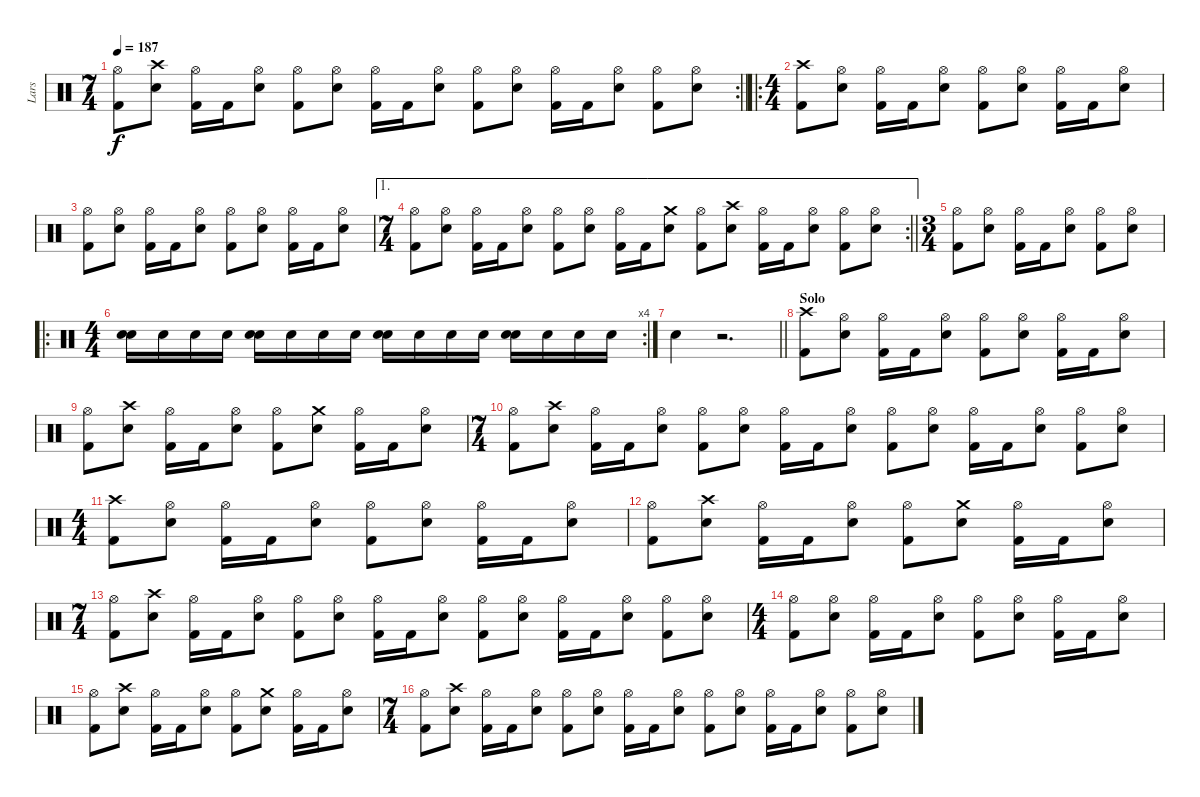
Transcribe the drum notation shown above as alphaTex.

\track ("Lars" "Lars") {instrument percussion}
\staff {score}
\articulation defaults
\rc 2
\ts (7 4)
\tempo 187
\clef neutral
\barLineRight lightlight
\ks c
("Hi-Hat (open)" "Kick (hit) 2").8{dy f} ("Crash high (hit)" "Snare (hit) 2").8 ("Hi-Hat (open)" "Kick (hit) 2").16 "Kick (hit) 2".16 ("Hi-Hat (open)" "Snare (hit) 2").8 ("Hi-Hat (open)" "Kick (hit) 2").8 ("Hi-Hat (open)" "Snare (hit) 2").8 ("Hi-Hat (open)" "Kick (hit) 2").16 "Kick (hit) 2".16 ("Hi-Hat (open)" "Snare (hit) 2").8 ("Hi-Hat (open)" "Kick (hit) 2").8 ("Hi-Hat (open)" "Snare (hit) 2").8 ("Hi-Hat (open)" "Kick (hit) 2").16 "Kick (hit) 2".16 ("Hi-Hat (open)" "Snare (hit) 2").8 ("Hi-Hat (open)" "Kick (hit) 2").8 ("Hi-Hat (open)" "Snare (hit) 2").8 |
\ro
\ts (4 4)
\section ("" "")
("Crash high (hit)" "Kick (hit) 2").8 ("Hi-Hat (open)" "Snare (hit) 2").8 ("Hi-Hat (open)" "Kick (hit) 2").16 "Kick (hit) 2".16 ("Hi-Hat (open)" "Snare (hit) 2").8 ("Hi-Hat (open)" "Kick (hit) 2").8 ("Hi-Hat (open)" "Snare (hit) 2").8 ("Hi-Hat (open)" "Kick (hit) 2").16 "Kick (hit) 2".16 ("Hi-Hat (open)" "Snare (hit) 2").8 |
("Hi-Hat (open)" "Kick (hit) 2").8 ("Hi-Hat (open)" "Snare (hit) 2").8 ("Hi-Hat (open)" "Kick (hit) 2").16 "Kick (hit) 2".16 ("Hi-Hat (open)" "Snare (hit) 2").8 ("Hi-Hat (open)" "Kick (hit) 2").8 ("Hi-Hat (open)" "Snare (hit) 2").8 ("Hi-Hat (open)" "Kick (hit) 2").16 "Kick (hit) 2".16 ("Hi-Hat (open)" "Snare (hit) 2").8 |
\ae 1
\rc 2
\ts (7 4)
\barLineRight lightlight
("Hi-Hat (open)" "Kick (hit) 2").8 ("Hi-Hat (open)" "Snare (hit) 2").8 ("Hi-Hat (open)" "Kick (hit) 2").16 "Kick (hit) 2".16 ("Hi-Hat (open)" "Snare (hit) 2").8 ("Hi-Hat (open)" "Kick (hit) 2").8 ("Hi-Hat (open)" "Snare (hit) 2").8 ("Hi-Hat (open)" "Kick (hit) 2").16 "Kick (hit) 2".16 ("Crash medium (hit)" "Snare (hit) 2").8 ("Hi-Hat (open)" "Kick (hit) 2").8 ("Crash high (hit)" "Snare (hit) 2").8 ("Hi-Hat (open)" "Kick (hit) 2").16 "Kick (hit) 2".16 ("Hi-Hat (open)" "Snare (hit) 2").8 ("Hi-Hat (open)" "Kick (hit) 2").8 ("Hi-Hat (open)" "Snare (hit) 2").8 |
\ts (3 4)
("Hi-Hat (open)" "Kick (hit) 2").8 ("Hi-Hat (open)" "Snare (hit) 2").8 ("Hi-Hat (open)" "Kick (hit) 2").16 "Kick (hit) 2".16 ("Hi-Hat (open)" "Snare (hit) 2").8 ("Hi-Hat (open)" "Kick (hit) 2").8 ("Hi-Hat (open)" "Snare (hit) 2").8 |
\ro
\rc 4
\ts (4 4)
("Electric Snare (hit)" "Snare (hit) 2").16 "Snare (hit) 2".16 "Snare (hit) 2".16 "Snare (hit) 2".16 ("Electric Snare (hit)" "Snare (hit) 2").16 "Snare (hit) 2".16 "Snare (hit) 2".16 "Snare (hit) 2".16 ("Electric Snare (hit)" "Snare (hit) 2").16 "Snare (hit) 2".16 "Snare (hit) 2".16 "Snare (hit) 2".16 ("Electric Snare (hit)" "Snare (hit) 2").16 "Snare (hit) 2".16 "Snare (hit) 2".16 "Snare (hit) 2".16 |
\barLineRight lightlight "Snare (hit) 2".4
r.2{d} |
\section ("" "Solo")
("Crash high (hit)" "Kick (hit) 2").8 ("Hi-Hat (open)" "Snare (hit) 2").8 ("Hi-Hat (open)" "Kick (hit) 2").16 "Kick (hit) 2".16 ("Hi-Hat (open)" "Snare (hit) 2").8 ("Hi-Hat (open)" "Kick (hit) 2").8 ("Hi-Hat (open)" "Snare (hit) 2").8 ("Hi-Hat (open)" "Kick (hit) 2").16 "Kick (hit) 2".16 ("Hi-Hat (open)" "Snare (hit) 2").8 |
("Hi-Hat (open)" "Kick (hit) 2").8 ("Crash high (hit)" "Snare (hit) 2").8 ("Hi-Hat (open)" "Kick (hit) 2").16 "Kick (hit) 2".16 ("Hi-Hat (open)" "Snare (hit) 2").8 ("Hi-Hat (open)" "Kick (hit) 2").8 ("Crash medium (hit)" "Snare (hit) 2").8 ("Hi-Hat (open)" "Kick (hit) 2").16 "Kick (hit) 2".16 ("Hi-Hat (open)" "Snare (hit) 2").8 |
\ts (7 4)
("Hi-Hat (open)" "Kick (hit) 2").8 ("Crash high (hit)" "Snare (hit) 2").8 ("Hi-Hat (open)" "Kick (hit) 2").16 "Kick (hit) 2".16 ("Hi-Hat (open)" "Snare (hit) 2").8 ("Hi-Hat (open)" "Kick (hit) 2").8 ("Hi-Hat (open)" "Snare (hit) 2").8 ("Hi-Hat (open)" "Kick (hit) 2").16 "Kick (hit) 2".16 ("Hi-Hat (open)" "Snare (hit) 2").8 ("Hi-Hat (open)" "Kick (hit) 2").8 ("Hi-Hat (open)" "Snare (hit) 2").8 ("Hi-Hat (open)" "Kick (hit) 2").16 "Kick (hit) 2".16 ("Hi-Hat (open)" "Snare (hit) 2").8 ("Hi-Hat (open)" "Kick (hit) 2").8 ("Hi-Hat (open)" "Snare (hit) 2").8 |
\ts (4 4)
("Crash high (hit)" "Kick (hit) 2").8 ("Hi-Hat (open)" "Snare (hit) 2").8 ("Hi-Hat (open)" "Kick (hit) 2").16 "Kick (hit) 2".16 ("Hi-Hat (open)" "Snare (hit) 2").8 ("Hi-Hat (open)" "Kick (hit) 2").8 ("Hi-Hat (open)" "Snare (hit) 2").8 ("Hi-Hat (open)" "Kick (hit) 2").16 "Kick (hit) 2".16 ("Hi-Hat (open)" "Snare (hit) 2").8 |
("Hi-Hat (open)" "Kick (hit) 2").8 ("Crash high (hit)" "Snare (hit) 2").8 ("Hi-Hat (open)" "Kick (hit) 2").16 "Kick (hit) 2".16 ("Hi-Hat (open)" "Snare (hit) 2").8 ("Hi-Hat (open)" "Kick (hit) 2").8 ("Crash medium (hit)" "Snare (hit) 2").8 ("Hi-Hat (open)" "Kick (hit) 2").16 "Kick (hit) 2".16 ("Hi-Hat (open)" "Snare (hit) 2").8 |
\ts (7 4)
("Hi-Hat (open)" "Kick (hit) 2").8 ("Crash high (hit)" "Snare (hit) 2").8 ("Hi-Hat (open)" "Kick (hit) 2").16 "Kick (hit) 2".16 ("Hi-Hat (open)" "Snare (hit) 2").8 ("Hi-Hat (open)" "Kick (hit) 2").8 ("Hi-Hat (open)" "Snare (hit) 2").8 ("Hi-Hat (open)" "Kick (hit) 2").16 "Kick (hit) 2".16 ("Hi-Hat (open)" "Snare (hit) 2").8 ("Hi-Hat (open)" "Kick (hit) 2").8 ("Hi-Hat (open)" "Snare (hit) 2").8 ("Hi-Hat (open)" "Kick (hit) 2").16 "Kick (hit) 2".16 ("Hi-Hat (open)" "Snare (hit) 2").8 ("Hi-Hat (open)" "Kick (hit) 2").8 ("Hi-Hat (open)" "Snare (hit) 2").8 |
\ts (4 4)
("Hi-Hat (open)" "Kick (hit) 2").8 ("Hi-Hat (open)" "Snare (hit) 2").8 ("Hi-Hat (open)" "Kick (hit) 2").16 "Kick (hit) 2".16 ("Hi-Hat (open)" "Snare (hit) 2").8 ("Hi-Hat (open)" "Kick (hit) 2").8 ("Hi-Hat (open)" "Snare (hit) 2").8 ("Hi-Hat (open)" "Kick (hit) 2").16 "Kick (hit) 2".16 ("Hi-Hat (open)" "Snare (hit) 2").8 |
("Hi-Hat (open)" "Kick (hit) 2").8 ("Crash high (hit)" "Snare (hit) 2").8 ("Hi-Hat (open)" "Kick (hit) 2").16 "Kick (hit) 2".16 ("Hi-Hat (open)" "Snare (hit) 2").8 ("Hi-Hat (open)" "Kick (hit) 2").8 ("Crash medium (hit)" "Snare (hit) 2").8 ("Hi-Hat (open)" "Kick (hit) 2").16 "Kick (hit) 2".16 ("Hi-Hat (open)" "Snare (hit) 2").8 |
\ts (7 4)
("Hi-Hat (open)" "Kick (hit) 2").8 ("Crash high (hit)" "Snare (hit) 2").8 ("Hi-Hat (open)" "Kick (hit) 2").16 "Kick (hit) 2".16 ("Hi-Hat (open)" "Snare (hit) 2").8 ("Hi-Hat (open)" "Kick (hit) 2").8 ("Hi-Hat (open)" "Snare (hit) 2").8 ("Hi-Hat (open)" "Kick (hit) 2").16 "Kick (hit) 2".16 ("Hi-Hat (open)" "Snare (hit) 2").8 ("Hi-Hat (open)" "Kick (hit) 2").8 ("Hi-Hat (open)" "Snare (hit) 2").8 ("Hi-Hat (open)" "Kick (hit) 2").16 "Kick (hit) 2".16 ("Hi-Hat (open)" "Snare (hit) 2").8 ("Hi-Hat (open)" "Kick (hit) 2").8 ("Hi-Hat (open)" "Snare (hit) 2").8
